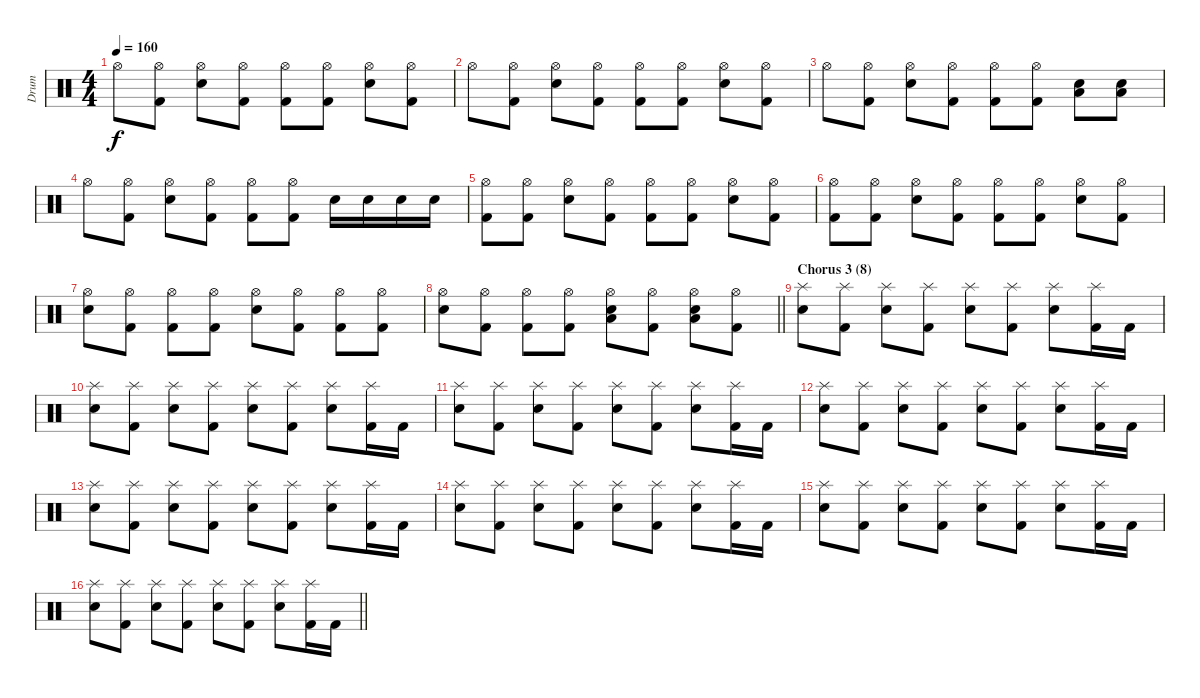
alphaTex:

\track ("Drum" "Drum") {instrument percussion}
\staff {score}
\articulation defaults
\ts (4 4)
\tempo 160
\clef neutral
\ks c "Hi-Hat (open)".8{dy f}
("Hi-Hat (open)" "Kick (hit) 2").8 ("Hi-Hat (open)" "Snare (hit) 2").8 ("Hi-Hat (open)" "Kick (hit) 2").8 ("Hi-Hat (open)" "Kick (hit) 2").8 ("Hi-Hat (open)" "Kick (hit) 2").8 ("Hi-Hat (open)" "Snare (hit) 2").8 ("Hi-Hat (open)" "Kick (hit) 2").8 |
"Hi-Hat (open)".8 ("Hi-Hat (open)" "Kick (hit) 2").8 ("Hi-Hat (open)" "Snare (hit) 2").8 ("Hi-Hat (open)" "Kick (hit) 2").8 ("Hi-Hat (open)" "Kick (hit) 2").8 ("Hi-Hat (open)" "Kick (hit) 2").8 ("Hi-Hat (open)" "Snare (hit) 2").8 ("Hi-Hat (open)" "Kick (hit) 2").8 |
"Hi-Hat (open)".8 ("Hi-Hat (open)" "Kick (hit) 2").8 ("Hi-Hat (open)" "Snare (hit) 2").8 ("Hi-Hat (open)" "Kick (hit) 2").8 ("Hi-Hat (open)" "Kick (hit) 2").8 ("Hi-Hat (open)" "Kick (hit) 2").8 ("Low Floor Tom (hit)" "Snare (hit) 2").8 ("Low Floor Tom (hit)" "Snare (hit) 2").8 |
"Hi-Hat (open)".8 ("Hi-Hat (open)" "Kick (hit) 2").8 ("Hi-Hat (open)" "Snare (hit) 2").8 ("Hi-Hat (open)" "Kick (hit) 2").8 ("Hi-Hat (open)" "Kick (hit) 2").8 ("Hi-Hat (open)" "Kick (hit) 2").8 "Snare (hit) 2".16 "Snare (hit) 2".16 "Snare (hit) 2".16 "Snare (hit) 2".16 |
("Hi-Hat (open)" "Kick (hit) 2").8 ("Hi-Hat (open)" "Kick (hit) 2").8 ("Hi-Hat (open)" "Snare (hit) 2").8 ("Hi-Hat (open)" "Kick (hit) 2").8 ("Hi-Hat (open)" "Kick (hit) 2").8 ("Hi-Hat (open)" "Kick (hit) 2").8 ("Hi-Hat (open)" "Snare (hit) 2").8 ("Hi-Hat (open)" "Kick (hit) 2").8 |
("Hi-Hat (open)" "Kick (hit) 2").8 ("Hi-Hat (open)" "Kick (hit) 2").8 ("Hi-Hat (open)" "Snare (hit) 2").8 ("Hi-Hat (open)" "Kick (hit) 2").8 ("Hi-Hat (open)" "Kick (hit) 2").8 ("Hi-Hat (open)" "Kick (hit) 2").8 ("Hi-Hat (open)" "Snare (hit) 2").8 ("Hi-Hat (open)" "Kick (hit) 2").8 |
("Hi-Hat (open)" "Snare (hit) 2").8 ("Hi-Hat (open)" "Kick (hit) 2").8 ("Hi-Hat (open)" "Kick (hit) 2").8 ("Hi-Hat (open)" "Kick (hit) 2").8 ("Hi-Hat (open)" "Snare (hit) 2").8 ("Hi-Hat (open)" "Kick (hit) 2").8 ("Hi-Hat (open)" "Kick (hit) 2").8 ("Hi-Hat (open)" "Kick (hit) 2").8 |
\barLineRight lightlight
("Hi-Hat (open)" "Snare (hit) 2").8 ("Hi-Hat (open)" "Kick (hit) 2").8 ("Hi-Hat (open)" "Kick (hit) 2").8 ("Hi-Hat (open)" "Kick (hit) 2").8 ("Hi-Hat (open)" "Low Floor Tom (hit)" "Snare (hit) 2").8 ("Hi-Hat (open)" "Kick (hit) 2").8 ("Hi-Hat (open)" "Low Floor Tom (hit)" "Snare (hit) 2").8 ("Hi-Hat (open)" "Kick (hit) 2").8 |
\section ("" "Chorus 3 (8)")
("Splash (hit)" "Snare (hit) 2").8 ("Splash (hit)" "Kick (hit) 2").8 ("Splash (hit)" "Snare (hit) 2").8 ("Splash (hit)" "Kick (hit) 2").8 ("Splash (hit)" "Snare (hit) 2").8 ("Splash (hit)" "Kick (hit) 2").8 ("Splash (hit)" "Snare (hit) 2").8 ("Splash (hit)" "Kick (hit) 2").16 "Kick (hit) 2".16 |
("Splash (hit)" "Snare (hit) 2").8 ("Splash (hit)" "Kick (hit) 2").8 ("Splash (hit)" "Snare (hit) 2").8 ("Splash (hit)" "Kick (hit) 2").8 ("Splash (hit)" "Snare (hit) 2").8 ("Splash (hit)" "Kick (hit) 2").8 ("Splash (hit)" "Snare (hit) 2").8 ("Splash (hit)" "Kick (hit) 2").16 "Kick (hit) 2".16 |
("Splash (hit)" "Snare (hit) 2").8 ("Splash (hit)" "Kick (hit) 2").8 ("Splash (hit)" "Snare (hit) 2").8 ("Splash (hit)" "Kick (hit) 2").8 ("Splash (hit)" "Snare (hit) 2").8 ("Splash (hit)" "Kick (hit) 2").8 ("Splash (hit)" "Snare (hit) 2").8 ("Splash (hit)" "Kick (hit) 2").16 "Kick (hit) 2".16 |
("Splash (hit)" "Snare (hit) 2").8 ("Splash (hit)" "Kick (hit) 2").8 ("Splash (hit)" "Snare (hit) 2").8 ("Splash (hit)" "Kick (hit) 2").8 ("Splash (hit)" "Snare (hit) 2").8 ("Splash (hit)" "Kick (hit) 2").8 ("Splash (hit)" "Snare (hit) 2").8 ("Splash (hit)" "Kick (hit) 2").16 "Kick (hit) 2".16 |
("Splash (hit)" "Snare (hit) 2").8 ("Splash (hit)" "Kick (hit) 2").8 ("Splash (hit)" "Snare (hit) 2").8 ("Splash (hit)" "Kick (hit) 2").8 ("Splash (hit)" "Snare (hit) 2").8 ("Splash (hit)" "Kick (hit) 2").8 ("Splash (hit)" "Snare (hit) 2").8 ("Splash (hit)" "Kick (hit) 2").16 "Kick (hit) 2".16 |
("Splash (hit)" "Snare (hit) 2").8 ("Splash (hit)" "Kick (hit) 2").8 ("Splash (hit)" "Snare (hit) 2").8 ("Splash (hit)" "Kick (hit) 2").8 ("Splash (hit)" "Snare (hit) 2").8 ("Splash (hit)" "Kick (hit) 2").8 ("Splash (hit)" "Snare (hit) 2").8 ("Splash (hit)" "Kick (hit) 2").16 "Kick (hit) 2".16 |
("Splash (hit)" "Snare (hit) 2").8 ("Splash (hit)" "Kick (hit) 2").8 ("Splash (hit)" "Snare (hit) 2").8 ("Splash (hit)" "Kick (hit) 2").8 ("Splash (hit)" "Snare (hit) 2").8 ("Splash (hit)" "Kick (hit) 2").8 ("Splash (hit)" "Snare (hit) 2").8 ("Splash (hit)" "Kick (hit) 2").16 "Kick (hit) 2".16 |
\barLineRight lightlight
("Splash (hit)" "Snare (hit) 2").8 ("Splash (hit)" "Kick (hit) 2").8 ("Splash (hit)" "Snare (hit) 2").8 ("Splash (hit)" "Kick (hit) 2").8 ("Splash (hit)" "Snare (hit) 2").8 ("Splash (hit)" "Kick (hit) 2").8 ("Splash (hit)" "Snare (hit) 2").8 ("Splash (hit)" "Kick (hit) 2").16 "Kick (hit) 2".16
